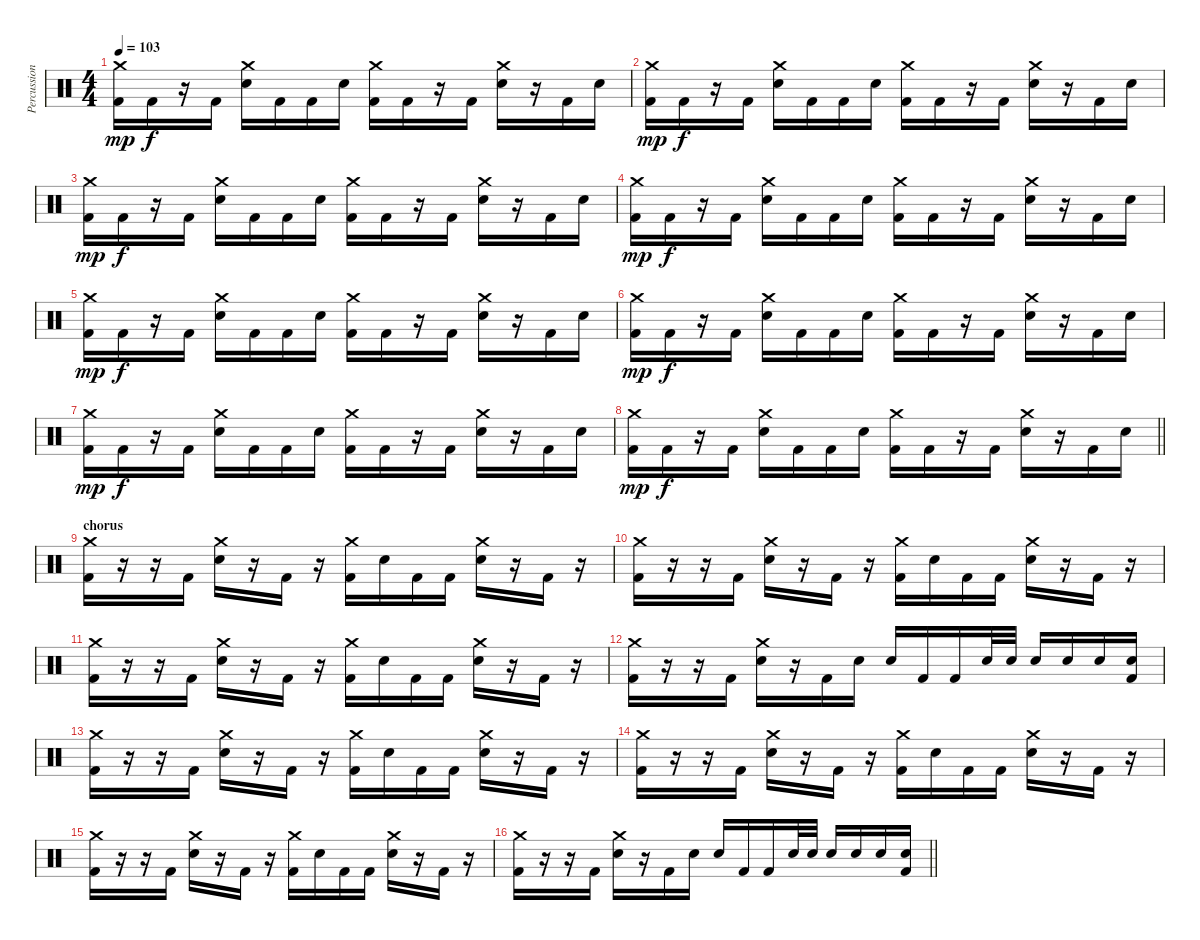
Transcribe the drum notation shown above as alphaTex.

\track ("Percussion" "Percussion") {instrument percussion}
\staff {score}
\articulation defaults
\ts (4 4)
\tempo 103
\clef neutral
\ks c
("Crash medium (hit)" "Kick (hit) 2").16{dy mp} "Kick (hit) 2".16{dy f} r.16 "Kick (hit) 2".16 ("Crash medium (hit)" "Electric Snare (hit)").16 "Kick (hit) 2".16 "Kick (hit) 2".16 "Electric Snare (hit)".16 ("Crash medium (hit)" "Kick (hit) 2").16 "Kick (hit) 2".16 r.16 "Kick (hit) 2".16 ("Crash medium (hit)" "Electric Snare (hit)").16 r.16 "Kick (hit) 2".16 "Electric Snare (hit)".16 |
("Crash medium (hit)" "Kick (hit) 2").16{dy mp} "Kick (hit) 2".16{dy f} r.16 "Kick (hit) 2".16 ("Crash medium (hit)" "Electric Snare (hit)").16 "Kick (hit) 2".16 "Kick (hit) 2".16 "Electric Snare (hit)".16 ("Crash medium (hit)" "Kick (hit) 2").16 "Kick (hit) 2".16 r.16 "Kick (hit) 2".16 ("Crash medium (hit)" "Electric Snare (hit)").16 r.16 "Kick (hit) 2".16 "Electric Snare (hit)".16 |
("Crash medium (hit)" "Kick (hit) 2").16{dy mp} "Kick (hit) 2".16{dy f} r.16 "Kick (hit) 2".16 ("Crash medium (hit)" "Electric Snare (hit)").16 "Kick (hit) 2".16 "Kick (hit) 2".16 "Electric Snare (hit)".16 ("Crash medium (hit)" "Kick (hit) 2").16 "Kick (hit) 2".16 r.16 "Kick (hit) 2".16 ("Crash medium (hit)" "Electric Snare (hit)").16 r.16 "Kick (hit) 2".16 "Electric Snare (hit)".16 |
("Crash medium (hit)" "Kick (hit) 2").16{dy mp} "Kick (hit) 2".16{dy f} r.16 "Kick (hit) 2".16 ("Crash medium (hit)" "Electric Snare (hit)").16 "Kick (hit) 2".16 "Kick (hit) 2".16 "Electric Snare (hit)".16 ("Crash medium (hit)" "Kick (hit) 2").16 "Kick (hit) 2".16 r.16 "Kick (hit) 2".16 ("Crash medium (hit)" "Electric Snare (hit)").16 r.16 "Kick (hit) 2".16 "Electric Snare (hit)".16 |
("Crash medium (hit)" "Kick (hit) 2").16{dy mp} "Kick (hit) 2".16{dy f} r.16 "Kick (hit) 2".16 ("Crash medium (hit)" "Electric Snare (hit)").16 "Kick (hit) 2".16 "Kick (hit) 2".16 "Electric Snare (hit)".16 ("Crash medium (hit)" "Kick (hit) 2").16 "Kick (hit) 2".16 r.16 "Kick (hit) 2".16 ("Crash medium (hit)" "Electric Snare (hit)").16 r.16 "Kick (hit) 2".16 "Electric Snare (hit)".16 |
("Crash medium (hit)" "Kick (hit) 2").16{dy mp} "Kick (hit) 2".16{dy f} r.16 "Kick (hit) 2".16 ("Crash medium (hit)" "Electric Snare (hit)").16 "Kick (hit) 2".16 "Kick (hit) 2".16 "Electric Snare (hit)".16 ("Crash medium (hit)" "Kick (hit) 2").16 "Kick (hit) 2".16 r.16 "Kick (hit) 2".16 ("Crash medium (hit)" "Electric Snare (hit)").16 r.16 "Kick (hit) 2".16 "Electric Snare (hit)".16 |
("Crash medium (hit)" "Kick (hit) 2").16{dy mp} "Kick (hit) 2".16{dy f} r.16 "Kick (hit) 2".16 ("Crash medium (hit)" "Electric Snare (hit)").16 "Kick (hit) 2".16 "Kick (hit) 2".16 "Electric Snare (hit)".16 ("Crash medium (hit)" "Kick (hit) 2").16 "Kick (hit) 2".16 r.16 "Kick (hit) 2".16 ("Crash medium (hit)" "Electric Snare (hit)").16 r.16 "Kick (hit) 2".16 "Electric Snare (hit)".16 |
\barLineRight lightlight
("Crash medium (hit)" "Kick (hit) 2").16{dy mp} "Kick (hit) 2".16{dy f} r.16 "Kick (hit) 2".16 ("Crash medium (hit)" "Electric Snare (hit)").16 "Kick (hit) 2".16 "Kick (hit) 2".16 "Electric Snare (hit)".16 ("Crash medium (hit)" "Kick (hit) 2").16 "Kick (hit) 2".16 r.16 "Kick (hit) 2".16 ("Crash medium (hit)" "Electric Snare (hit)").16 r.16 "Kick (hit) 2".16 "Electric Snare (hit)".16 |
\section ("" "chorus")
("Crash medium (hit)" "Kick (hit) 2").16 r.16 r.16 "Kick (hit) 2".16 ("Crash medium (hit)" "Electric Snare (hit)").16 r.16 "Kick (hit) 2".16 r.16 ("Crash medium (hit)" "Kick (hit) 2").16 "Electric Snare (hit)".16 "Kick (hit) 2".16 "Kick (hit) 2".16 ("Crash medium (hit)" "Electric Snare (hit)").16 r.16 "Kick (hit) 2".16 r.16 |
("Crash medium (hit)" "Kick (hit) 2").16 r.16 r.16 "Kick (hit) 2".16 ("Crash medium (hit)" "Electric Snare (hit)").16 r.16 "Kick (hit) 2".16 r.16 ("Crash medium (hit)" "Kick (hit) 2").16 "Electric Snare (hit)".16 "Kick (hit) 2".16 "Kick (hit) 2".16 ("Crash medium (hit)" "Electric Snare (hit)").16 r.16 "Kick (hit) 2".16 r.16 |
("Crash medium (hit)" "Kick (hit) 2").16 r.16 r.16 "Kick (hit) 2".16 ("Crash medium (hit)" "Electric Snare (hit)").16 r.16 "Kick (hit) 2".16 r.16 ("Crash medium (hit)" "Kick (hit) 2").16 "Electric Snare (hit)".16 "Kick (hit) 2".16 "Kick (hit) 2".16 ("Crash medium (hit)" "Electric Snare (hit)").16 r.16 "Kick (hit) 2".16 r.16 |
("Crash medium (hit)" "Kick (hit) 2").16 r.16 r.16 "Kick (hit) 2".16 ("Crash medium (hit)" "Electric Snare (hit)").16 r.16 "Kick (hit) 2".16 "Electric Snare (hit)".16 "Electric Snare (hit)".16 "Kick (hit) 2".16 "Kick (hit) 2".16 "Electric Snare (hit)".32 "Electric Snare (hit)".32 "Electric Snare (hit)".16 "Electric Snare (hit)".16 "Electric Snare (hit)".16 ("Electric Snare (hit)" "Kick (hit) 2").16 |
("Crash medium (hit)" "Kick (hit) 2").16 r.16 r.16 "Kick (hit) 2".16 ("Crash medium (hit)" "Electric Snare (hit)").16 r.16 "Kick (hit) 2".16 r.16 ("Crash medium (hit)" "Kick (hit) 2").16 "Electric Snare (hit)".16 "Kick (hit) 2".16 "Kick (hit) 2".16 ("Crash medium (hit)" "Electric Snare (hit)").16 r.16 "Kick (hit) 2".16 r.16 |
("Crash medium (hit)" "Kick (hit) 2").16 r.16 r.16 "Kick (hit) 2".16 ("Crash medium (hit)" "Electric Snare (hit)").16 r.16 "Kick (hit) 2".16 r.16 ("Crash medium (hit)" "Kick (hit) 2").16 "Electric Snare (hit)".16 "Kick (hit) 2".16 "Kick (hit) 2".16 ("Crash medium (hit)" "Electric Snare (hit)").16 r.16 "Kick (hit) 2".16 r.16 |
("Crash medium (hit)" "Kick (hit) 2").16 r.16 r.16 "Kick (hit) 2".16 ("Crash medium (hit)" "Electric Snare (hit)").16 r.16 "Kick (hit) 2".16 r.16 ("Crash medium (hit)" "Kick (hit) 2").16 "Electric Snare (hit)".16 "Kick (hit) 2".16 "Kick (hit) 2".16 ("Crash medium (hit)" "Electric Snare (hit)").16 r.16 "Kick (hit) 2".16 r.16 |
\barLineRight lightlight
("Crash medium (hit)" "Kick (hit) 2").16 r.16 r.16 "Kick (hit) 2".16 ("Crash medium (hit)" "Electric Snare (hit)").16 r.16 "Kick (hit) 2".16 "Electric Snare (hit)".16 "Electric Snare (hit)".16 "Kick (hit) 2".16 "Kick (hit) 2".16 "Electric Snare (hit)".32 "Electric Snare (hit)".32 "Electric Snare (hit)".16 "Electric Snare (hit)".16 "Electric Snare (hit)".16 ("Electric Snare (hit)" "Kick (hit) 2").16
